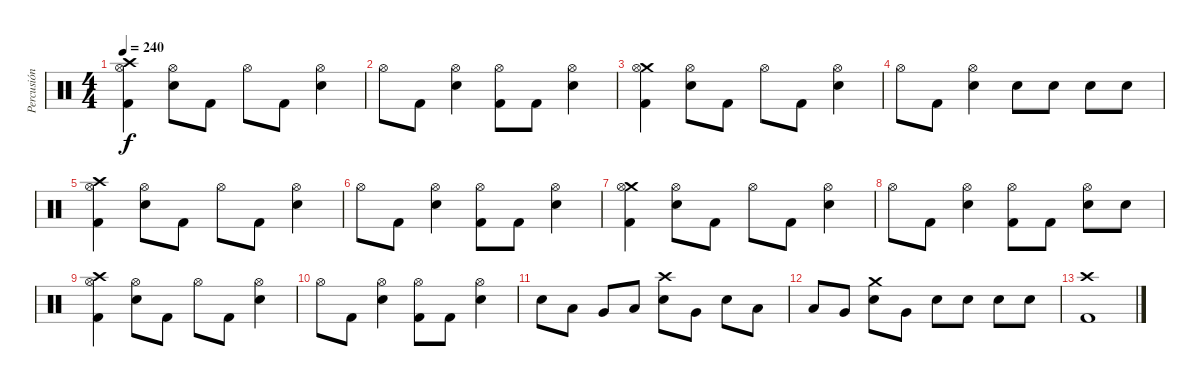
\track ("Percusión" "Percusión") {instrument percussion}
\staff {score}
\articulation defaults
\ts (4 4)
\tempo 240
\clef neutral
\ks c
("Crash high (hit)" "Hi-Hat (open)" "Kick (hit) 2").4{dy f} ("Hi-Hat (open)" "Snare (hit) 2").8 "Kick (hit) 2".8 "Hi-Hat (open)".8 "Kick (hit) 2".8 ("Hi-Hat (open)" "Snare (hit) 2").4 |
"Hi-Hat (open)".8 "Kick (hit) 2".8 ("Hi-Hat (open)" "Snare (hit) 2").4 ("Hi-Hat (open)" "Kick (hit) 2").8 "Kick (hit) 2".8 ("Hi-Hat (open)" "Snare (hit) 2").4 |
("Crash medium (hit)" "Hi-Hat (open)" "Kick (hit) 2").4 ("Hi-Hat (open)" "Snare (hit) 2").8 "Kick (hit) 2".8 "Hi-Hat (open)".8 "Kick (hit) 2".8 ("Hi-Hat (open)" "Snare (hit) 2").4 |
"Hi-Hat (open)".8 "Kick (hit) 2".8 ("Hi-Hat (open)" "Snare (hit) 2").4 "Snare (hit) 2".8 "Snare (hit) 2".8 "Snare (hit) 2".8 "Snare (hit) 2".8 |
("Crash high (hit)" "Hi-Hat (open)" "Kick (hit) 2").4 ("Hi-Hat (open)" "Snare (hit) 2").8 "Kick (hit) 2".8 "Hi-Hat (open)".8 "Kick (hit) 2".8 ("Hi-Hat (open)" "Snare (hit) 2").4 |
"Hi-Hat (open)".8 "Kick (hit) 2".8 ("Hi-Hat (open)" "Snare (hit) 2").4 ("Hi-Hat (open)" "Kick (hit) 2").8 "Kick (hit) 2".8 ("Hi-Hat (open)" "Snare (hit) 2").4 |
("Crash medium (hit)" "Hi-Hat (open)" "Kick (hit) 2").4 ("Hi-Hat (open)" "Snare (hit) 2").8 "Kick (hit) 2".8 "Hi-Hat (open)".8 "Kick (hit) 2".8 ("Hi-Hat (open)" "Snare (hit) 2").4 |
"Hi-Hat (open)".8 "Kick (hit) 2".8 ("Hi-Hat (open)" "Snare (hit) 2").4 ("Hi-Hat (open)" "Kick (hit) 2").8 "Kick (hit) 2".8 ("Hi-Hat (open)" "Snare (hit) 2").8 "Snare (hit) 2".8 |
("Crash high (hit)" "Hi-Hat (open)" "Kick (hit) 2").4 ("Hi-Hat (open)" "Snare (hit) 2").8 "Kick (hit) 2".8 "Hi-Hat (open)".8 "Kick (hit) 2".8 ("Hi-Hat (open)" "Snare (hit) 2").4 |
"Hi-Hat (open)".8 "Kick (hit) 2".8 ("Hi-Hat (open)" "Snare (hit) 2").4 ("Hi-Hat (open)" "Kick (hit) 2").8 "Kick (hit) 2".8 ("Hi-Hat (open)" "Snare (hit) 2").4 |
"Snare (hit) 2".8 "Low Tom (hit)".8 "Very Low Tom (hit)".8 "Low Floor Tom (hit)".8 ("Crash high (hit)" "Snare (hit) 2").8 "Very Low Tom (hit)".8 "Snare (hit) 2".8 "Low Tom (hit)".8 |
"Low Tom (hit)".8 "Very Low Tom (hit)".8 ("Crash medium (hit)" "Snare (hit) 2").8 "Very Low Tom (hit)".8 "Snare (hit) 2".8 "Snare (hit) 2".8 "Snare (hit) 2".8 "Snare (hit) 2".8 |
("Crash high (hit)" "Kick (hit) 2").1
